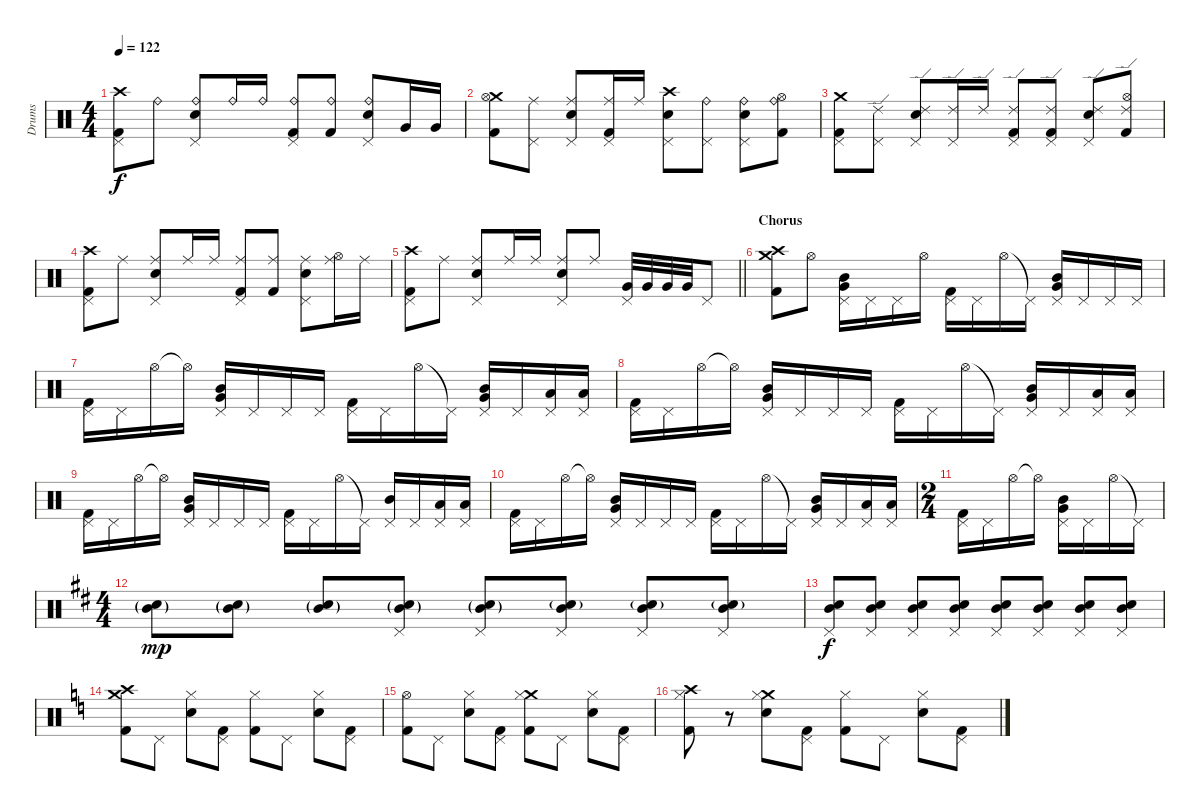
\track ("Drums" "Drums") {instrument percussion}
\staff {score}
\articulation defaults
\ts (4 4)
\tempo 122
\clef neutral
\ks c
("Crash high (hit)" "Pedal Hi-Hat (hit)" "Kick (hit) 2").8{dy f} "Ride (bell)".8 ("Ride (bell)" "Snare (hit) 2" "Pedal Hi-Hat (hit)").8 "Ride (bell)".16 "Ride (bell)".16 ("Ride (bell)" "Pedal Hi-Hat (hit)" "Kick (hit) 2").8 ("Ride (bell)" "Kick (hit) 2").8 ("Ride (bell)" "Snare (hit) 2" "Pedal Hi-Hat (hit)").8 "Very Low Tom (hit)".16 "Very Low Tom (hit)".16 |
("Crash medium (hit)" "Hi-Hat (open)" "Kick (hit) 2").8 ("Ride (middle)" "Pedal Hi-Hat (hit)").8 ("Ride (middle)" "Snare (hit) 2" "Pedal Hi-Hat (hit)").8 ("Ride (middle)" "Pedal Hi-Hat (hit)" "Kick (hit) 2").16 "Ride (middle)".16 ("Crash high (hit)" "Snare (hit) 2" "Pedal Hi-Hat (hit)").8 ("Ride (bell)" "Pedal Hi-Hat (hit)").8 ("Ride (bell)" "Snare (hit) 2" "Pedal Hi-Hat (hit)").8 ("Ride (bell)" "Hi-Hat (open)" "Kick (hit) 2").8 |
("Crash medium (hit)" "Pedal Hi-Hat (hit)" "Kick (hit) 2").8 ("Ride (edge) 2" "Pedal Hi-Hat (hit)").8 ("Ride (edge) 2" "Snare (hit) 2" "Pedal Hi-Hat (hit)").8 ("Ride (edge) 2" "Pedal Hi-Hat (hit)").16 "Ride (edge) 2".16 ("Ride (edge) 2" "Pedal Hi-Hat (hit)" "Kick (hit) 2").8 ("Ride (edge) 2" "Pedal Hi-Hat (hit)" "Kick (hit) 2").8 ("Ride (edge) 2" "Snare (hit) 2" "Pedal Hi-Hat (hit)").8 ("Ride (edge) 2" "Hi-Hat (open)" "Kick (hit) 2").8 |
("Crash high (hit)" "Pedal Hi-Hat (hit)" "Kick (hit) 2").8 "Ride (middle)".8 ("Ride (middle)" "Snare (hit) 2" "Pedal Hi-Hat (hit)").8 "Ride (middle)".16 "Ride (middle)".16 ("Ride (middle)" "Pedal Hi-Hat (hit)" "Kick (hit) 2").8 ("Ride (middle)" "Kick (hit) 2").8 ("Ride (middle)" "Snare (hit) 2" "Pedal Hi-Hat (hit)").8 ("Ride (middle)" "Hi-Hat (open)").16 "Ride (middle)".16 |
\barLineRight lightlight
("Crash high (hit)" "Pedal Hi-Hat (hit)" "Kick (hit) 2").8 "Ride (middle)".8 ("Ride (middle)" "Snare (hit) 2" "Pedal Hi-Hat (hit)").8 "Ride (middle)".16 "Ride (middle)".16 ("Ride (middle)" "Snare (hit) 2" "Pedal Hi-Hat (hit)").8 "Ride (middle)".8 ("Very Low Tom (hit)" "Pedal Hi-Hat (hit)").32 "Very Low Tom (hit)".32 "Very Low Tom (hit)".32 "Very Low Tom (hit)".32 "Pedal Hi-Hat (hit)".8 |
\section ("" "Chorus")
("Crash medium (hit)" "Crash high (hit)" "Kick (hit) 2").8 "Hi-Hat (open)".8 ("Pedal Hi-Hat (hit)" "Mid Tom (hit)" "Very Low Tom (hit)").16 "Pedal Hi-Hat (hit)".16 "Pedal Hi-Hat (hit)".16 "Hi-Hat (open)".16 ("Pedal Hi-Hat (hit)" "Kick (hit) 2").16 "Pedal Hi-Hat (hit)".16 "Hi-Hat (open)".16 "Pedal Hi-Hat (hit)"{t}.16 ("Pedal Hi-Hat (hit)" "Mid Tom (hit)" "Very Low Tom (hit)").16 "Pedal Hi-Hat (hit)".16 "Pedal Hi-Hat (hit)".16 "Pedal Hi-Hat (hit)".16 |
("Pedal Hi-Hat (hit)" "Kick (hit) 2").16 "Pedal Hi-Hat (hit)".16 "Hi-Hat (open)".16 "Hi-Hat (open)"{t}.16 ("Pedal Hi-Hat (hit)" "Mid Tom (hit)" "Very Low Tom (hit)").16 "Pedal Hi-Hat (hit)".16 "Pedal Hi-Hat (hit)".16 "Pedal Hi-Hat (hit)".16 ("Pedal Hi-Hat (hit)" "Kick (hit) 2").16 "Pedal Hi-Hat (hit)".16 "Hi-Hat (open)".16 "Pedal Hi-Hat (hit)"{t}.16 ("Pedal Hi-Hat (hit)" "Mid Tom (hit)" "Very Low Tom (hit)").16 "Pedal Hi-Hat (hit)".16 ("Pedal Hi-Hat (hit)" "Low Floor Tom (hit)").16 ("Pedal Hi-Hat (hit)" "Low Floor Tom (hit)").16 |
("Pedal Hi-Hat (hit)" "Kick (hit) 2").16 "Pedal Hi-Hat (hit)".16 "Hi-Hat (open)".16 "Hi-Hat (open)"{t}.16 ("Pedal Hi-Hat (hit)" "Mid Tom (hit)" "Very Low Tom (hit)").16 "Pedal Hi-Hat (hit)".16 "Pedal Hi-Hat (hit)".16 "Pedal Hi-Hat (hit)".16 ("Pedal Hi-Hat (hit)" "Kick (hit) 2").16 "Pedal Hi-Hat (hit)".16 "Hi-Hat (open)".16 "Pedal Hi-Hat (hit)"{t}.16 ("Pedal Hi-Hat (hit)" "Mid Tom (hit)" "Very Low Tom (hit)").16 "Pedal Hi-Hat (hit)".16 ("Pedal Hi-Hat (hit)" "Low Floor Tom (hit)").16 ("Pedal Hi-Hat (hit)" "Low Floor Tom (hit)").16 |
("Pedal Hi-Hat (hit)" "Kick (hit) 2").16 "Pedal Hi-Hat (hit)".16 "Hi-Hat (open)".16 "Hi-Hat (open)"{t}.16 ("Pedal Hi-Hat (hit)" "Mid Tom (hit)" "Very Low Tom (hit)").16 "Pedal Hi-Hat (hit)".16 "Pedal Hi-Hat (hit)".16 "Pedal Hi-Hat (hit)".16 ("Pedal Hi-Hat (hit)" "Kick (hit) 2").16 "Pedal Hi-Hat (hit)".16 "Hi-Hat (open)".16 "Pedal Hi-Hat (hit)"{t}.16 ("Pedal Hi-Hat (hit)" "Mid Tom (hit)").16 "Pedal Hi-Hat (hit)".16 ("Pedal Hi-Hat (hit)" "Low Floor Tom (hit)").16 ("Pedal Hi-Hat (hit)" "Low Floor Tom (hit)").16 |
("Pedal Hi-Hat (hit)" "Kick (hit) 2").16 "Pedal Hi-Hat (hit)".16 "Hi-Hat (open)".16 "Hi-Hat (open)"{t}.16 ("Pedal Hi-Hat (hit)" "Mid Tom (hit)" "Very Low Tom (hit)").16 "Pedal Hi-Hat (hit)".16 "Pedal Hi-Hat (hit)".16 "Pedal Hi-Hat (hit)".16 ("Pedal Hi-Hat (hit)" "Kick (hit) 2").16 "Pedal Hi-Hat (hit)".16 "Hi-Hat (open)".16 "Pedal Hi-Hat (hit)"{t}.16 ("Pedal Hi-Hat (hit)" "Mid Tom (hit)" "Very Low Tom (hit)").16 "Pedal Hi-Hat (hit)".16 ("Pedal Hi-Hat (hit)" "Low Floor Tom (hit)").16 ("Pedal Hi-Hat (hit)" "Low Floor Tom (hit)").16 |
\ts (2 4)
("Pedal Hi-Hat (hit)" "Kick (hit) 2").16 "Pedal Hi-Hat (hit)".16 "Hi-Hat (open)".16 "Hi-Hat (open)"{t}.16 ("Pedal Hi-Hat (hit)" "Mid Tom (hit)" "Very Low Tom (hit)").16 "Pedal Hi-Hat (hit)".16 "Hi-Hat (open)".16 "Pedal Hi-Hat (hit)"{t}.16 |
\ts (4 4)
\ks d
("Mid Tom (hit)"{g} "Snare (hit) 2"{g}).8{dy mp} ("Mid Tom (hit)"{g} "Snare (hit) 2"{g}).8 ("Mid Tom (hit)"{g} "Snare (hit) 2"{g}).8 ("Mid Tom (hit)"{g} "Snare (hit) 2"{g} "Pedal Hi-Hat (hit)").8 ("Mid Tom (hit)"{g} "Snare (hit) 2"{g} "Pedal Hi-Hat (hit)").8 ("Mid Tom (hit)" "Snare (hit) 2"{g} "Pedal Hi-Hat (hit)").8 ("Mid Tom (hit)" "Snare (hit) 2"{g} "Pedal Hi-Hat (hit)").8 ("Mid Tom (hit)" "Snare (hit) 2"{g} "Pedal Hi-Hat (hit)").8 |
("Mid Tom (hit)" "Snare (hit) 2" "Pedal Hi-Hat (hit)").8{dy f} ("Mid Tom (hit)" "Snare (hit) 2" "Pedal Hi-Hat (hit)").8 ("Mid Tom (hit)" "Snare (hit) 2" "Pedal Hi-Hat (hit)").8 ("Mid Tom (hit)" "Snare (hit) 2" "Pedal Hi-Hat (hit)").8 ("Mid Tom (hit)" "Snare (hit) 2" "Pedal Hi-Hat (hit)").8 ("Mid Tom (hit)" "Snare (hit) 2" "Pedal Hi-Hat (hit)").8 ("Mid Tom (hit)" "Snare (hit) 2" "Pedal Hi-Hat (hit)").8 ("Mid Tom (hit)" "Snare (hit) 2" "Pedal Hi-Hat (hit)").8 |
\ks c
("Crash medium (hit)" "Crash high (hit)" "Kick (hit) 2").8 "Pedal Hi-Hat (hit)".8 ("Snare (hit) 2" "Hi-Hat (closed)").8 ("Pedal Hi-Hat (hit)" "Kick (hit) 2").8 ("Hi-Hat (closed)" "Kick (hit) 2").8 "Pedal Hi-Hat (hit)".8 ("Snare (hit) 2" "Hi-Hat (closed)").8 ("Pedal Hi-Hat (hit)" "Kick (hit) 2").8 |
("Hi-Hat (open)" "Kick (hit) 2").8 "Pedal Hi-Hat (hit)".8 ("Snare (hit) 2" "Hi-Hat (closed)").8 ("Pedal Hi-Hat (hit)" "Kick (hit) 2").8 ("Crash medium (hit)" "Hi-Hat (closed)" "Kick (hit) 2").8 "Pedal Hi-Hat (hit)".8 ("Snare (hit) 2" "Hi-Hat (closed)").8 ("Pedal Hi-Hat (hit)" "Kick (hit) 2").8 |
("Crash high (hit)" "Hi-Hat (closed)" "Kick (hit) 2").8 r.8 ("Crash medium (hit)" "Snare (hit) 2" "Hi-Hat (closed)").8 ("Pedal Hi-Hat (hit)" "Kick (hit) 2").8 ("Hi-Hat (closed)" "Kick (hit) 2").8 "Pedal Hi-Hat (hit)".8 ("Snare (hit) 2" "Hi-Hat (closed)").8 ("Pedal Hi-Hat (hit)" "Kick (hit) 2").8
